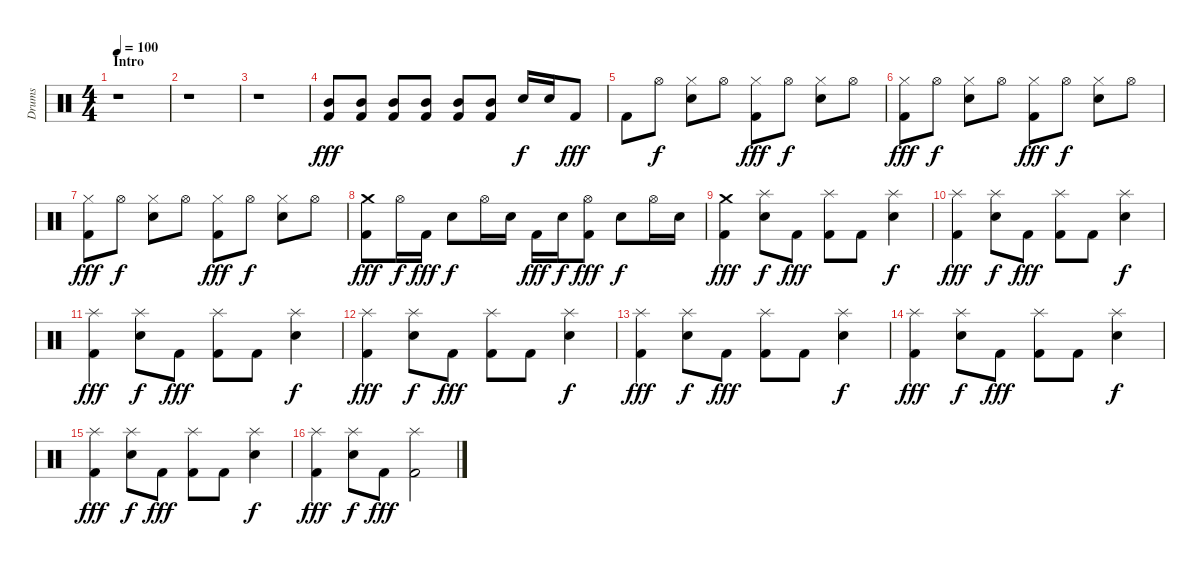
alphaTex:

\track ("Drums" "Drums") {instrument percussion}
\staff {score}
\articulation defaults
\ts (4 4)
\section ("" "Intro")
\tempo 100
\clef neutral
\ks c
r.1{dy fff} |
r.1 |
r.1 |
("Mid Tom (hit)" "Kick (hit) 2").8 ("Mid Tom (hit)" "Kick (hit) 2").8 ("Mid Tom (hit)" "Kick (hit) 2").8 ("Mid Tom (hit)" "Kick (hit) 2").8 ("Mid Tom (hit)" "Kick (hit) 2").8 ("Mid Tom (hit)" "Kick (hit) 2").8 "Electric Snare (hit)".16{dy f} "Electric Snare (hit)".16 "Kick (hit) 2".8{dy fff} |
"Kick (hit) 2".8 "Hi-Hat (open)".8{dy f} ("Hi-Hat (closed)" "Electric Snare (hit)").8 "Hi-Hat (open)".8 ("Hi-Hat (closed)" "Kick (hit) 2").8{dy fff} "Hi-Hat (open)".8{dy f} ("Hi-Hat (closed)" "Electric Snare (hit)").8 "Hi-Hat (open)".8 |
("Hi-Hat (closed)" "Kick (hit) 2").8{dy fff} "Hi-Hat (open)".8{dy f} ("Hi-Hat (closed)" "Electric Snare (hit)").8 "Hi-Hat (open)".8 ("Hi-Hat (closed)" "Kick (hit) 2").8{dy fff} "Hi-Hat (open)".8{dy f} ("Hi-Hat (closed)" "Electric Snare (hit)").8 "Hi-Hat (open)".8 |
("Hi-Hat (closed)" "Kick (hit) 2").8{dy fff} "Hi-Hat (open)".8{dy f} ("Hi-Hat (closed)" "Electric Snare (hit)").8 "Hi-Hat (open)".8 ("Hi-Hat (closed)" "Kick (hit) 2").8{dy fff} "Hi-Hat (open)".8{dy f} ("Hi-Hat (closed)" "Electric Snare (hit)").8 "Hi-Hat (open)".8 |
("Crash medium (hit)" "Kick (hit) 2").8{dy fff} "Hi-Hat (open)".16{dy f} "Kick (hit) 2".16{dy fff} "Electric Snare (hit)".8{dy f} "Hi-Hat (open)".16 "Electric Snare (hit)".16 "Kick (hit) 2".16{dy fff} "Electric Snare (hit)".16{dy f} ("Hi-Hat (open)" "Kick (hit) 2").8{dy fff} "Electric Snare (hit)".8{dy f} "Hi-Hat (open)".16 "Electric Snare (hit)".16 |
("Crash medium (hit)" "Kick (hit) 2").4{dy fff} ("Splash (hit)" "Electric Snare (hit)").8{dy f} "Kick (hit) 2".8{dy fff} ("Splash (hit)" "Kick (hit) 2").8 "Kick (hit) 2".8 ("Splash (hit)" "Electric Snare (hit)").4{dy f} |
("Splash (hit)" "Kick (hit) 2").4{dy fff} ("Splash (hit)" "Electric Snare (hit)").8{dy f} "Kick (hit) 2".8{dy fff} ("Splash (hit)" "Kick (hit) 2").8 "Kick (hit) 2".8 ("Splash (hit)" "Electric Snare (hit)").4{dy f} |
("Splash (hit)" "Kick (hit) 2").4{dy fff} ("Splash (hit)" "Electric Snare (hit)").8{dy f} "Kick (hit) 2".8{dy fff} ("Splash (hit)" "Kick (hit) 2").8 "Kick (hit) 2".8 ("Splash (hit)" "Electric Snare (hit)").4{dy f} |
("Splash (hit)" "Kick (hit) 2").4{dy fff} ("Splash (hit)" "Electric Snare (hit)").8{dy f} "Kick (hit) 2".8{dy fff} ("Splash (hit)" "Kick (hit) 2").8 "Kick (hit) 2".8 ("Splash (hit)" "Electric Snare (hit)").4{dy f} |
("Splash (hit)" "Kick (hit) 2").4{dy fff} ("Splash (hit)" "Electric Snare (hit)").8{dy f} "Kick (hit) 2".8{dy fff} ("Splash (hit)" "Kick (hit) 2").8 "Kick (hit) 2".8 ("Splash (hit)" "Electric Snare (hit)").4{dy f} |
("Splash (hit)" "Kick (hit) 2").4{dy fff} ("Splash (hit)" "Electric Snare (hit)").8{dy f} "Kick (hit) 2".8{dy fff} ("Splash (hit)" "Kick (hit) 2").8 "Kick (hit) 2".8 ("Splash (hit)" "Electric Snare (hit)").4{dy f} |
("Splash (hit)" "Kick (hit) 2").4{dy fff} ("Splash (hit)" "Electric Snare (hit)").8{dy f} "Kick (hit) 2".8{dy fff} ("Splash (hit)" "Kick (hit) 2").8 "Kick (hit) 2".8 ("Splash (hit)" "Electric Snare (hit)").4{dy f} |
("Splash (hit)" "Kick (hit) 2").4{dy fff} ("Splash (hit)" "Electric Snare (hit)").8{dy f} "Kick (hit) 2".8{dy fff} ("Splash (hit)" "Kick (hit) 2").2
